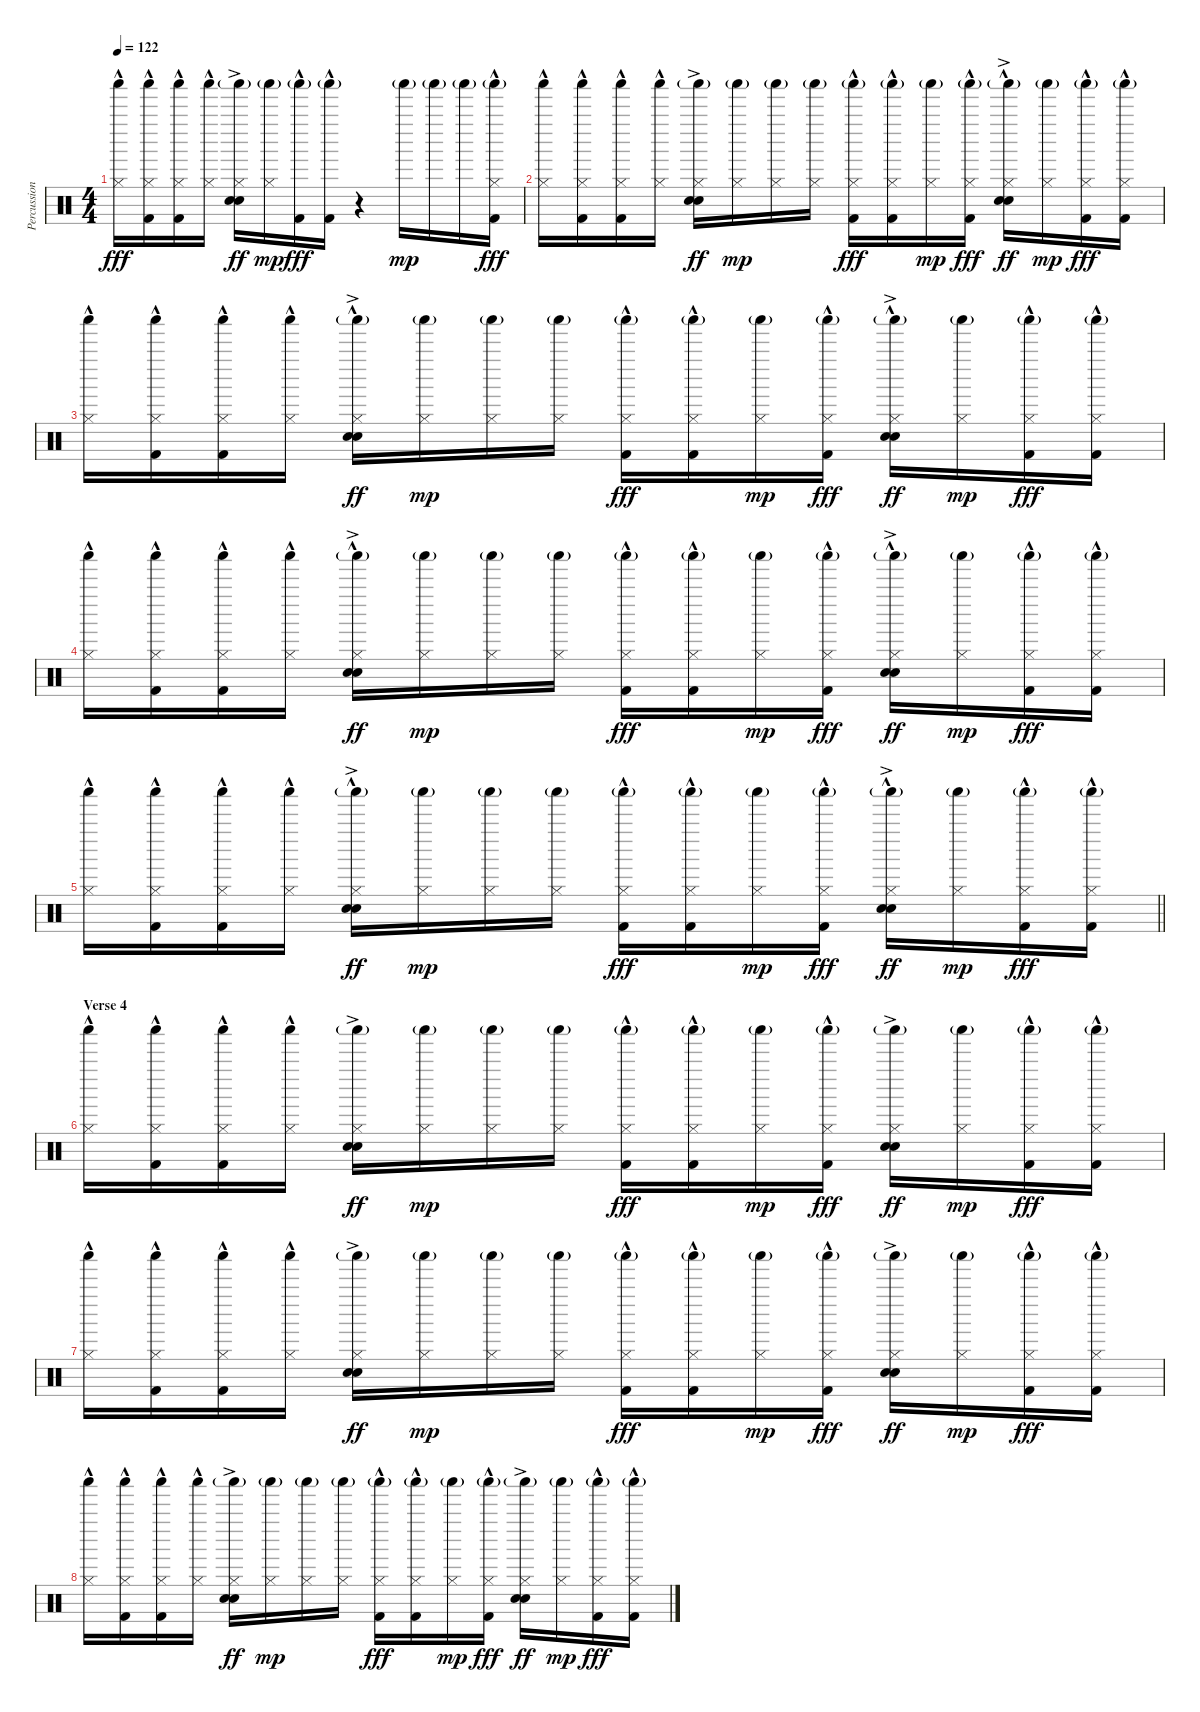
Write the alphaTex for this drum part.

\track ("Percussion" "Percussion") {instrument percussion}
\staff {score}
\articulation defaults
\ts (4 4)
\tempo 122
\clef neutral
\ks c
("Shaker (hit)" "Hi-Hat (closed)"{hac}).16{dy fff} ("Shaker (hit)" "Hi-Hat (closed)"{hac} "Kick (hit) 2"{hac}).16 ("Shaker (hit)" "Hi-Hat (closed)"{hac} "Kick (hit) 2"{hac}).16 ("Shaker (hit)" "Hi-Hat (closed)"{hac}).16 ("Shaker (hit)"{g} "Hi-Hat (closed)" "Hand Clap (hit)"{ac} "Snare (hit) 2"{ac}).16{dy ff} ("Shaker (hit)"{g} "Hi-Hat (closed)").16{dy mp} ("Shaker (hit)"{g} "Kick (hit) 2"{hac}).16{dy fff} ("Shaker (hit)"{g} "Kick (hit) 2"{hac}).16 r.4 "Shaker (hit)"{g}.16{dy mp} "Shaker (hit)"{g}.16 "Shaker (hit)"{g}.16 ("Shaker (hit)"{g} "Hi-Hat (closed)" "Kick (hit) 2"{hac}).16{dy fff} |
("Shaker (hit)" "Hi-Hat (closed)"{hac}).16 ("Shaker (hit)" "Hi-Hat (closed)"{hac} "Kick (hit) 2"{hac}).16 ("Shaker (hit)" "Hi-Hat (closed)"{hac} "Kick (hit) 2"{hac}).16 ("Shaker (hit)" "Hi-Hat (closed)"{hac}).16 ("Shaker (hit)"{g} "Hi-Hat (closed)" "Hand Clap (hit)"{ac} "Snare (hit) 2"{ac}).16{dy ff} ("Shaker (hit)"{g} "Hi-Hat (closed)").16{dy mp} ("Shaker (hit)"{g} "Hi-Hat (closed)").16 ("Shaker (hit)"{g} "Hi-Hat (closed)").16 ("Shaker (hit)"{g} "Hi-Hat (closed)" "Kick (hit) 2"{hac}).16{dy fff} ("Shaker (hit)"{g} "Hi-Hat (closed)" "Kick (hit) 2"{hac}).16 ("Shaker (hit)"{g} "Hi-Hat (closed)").16{dy mp} ("Shaker (hit)"{g} "Hi-Hat (closed)" "Kick (hit) 2"{hac}).16{dy fff} ("Shaker (hit)"{g} "Hi-Hat (closed)" "Hand Clap (hit)"{hac} "Snare (hit) 2"{ac}).16{dy ff} ("Shaker (hit)"{g} "Hi-Hat (closed)").16{dy mp} ("Shaker (hit)"{g} "Hi-Hat (closed)" "Kick (hit) 2"{hac}).16{dy fff} ("Shaker (hit)"{g} "Hi-Hat (closed)" "Kick (hit) 2"{hac}).16 |
("Shaker (hit)" "Hi-Hat (closed)"{hac}).16 ("Shaker (hit)" "Hi-Hat (closed)"{hac} "Kick (hit) 2"{hac}).16 ("Shaker (hit)" "Hi-Hat (closed)"{hac} "Kick (hit) 2"{hac}).16 ("Shaker (hit)" "Hi-Hat (closed)"{hac}).16 ("Shaker (hit)"{g} "Hi-Hat (closed)" "Hand Clap (hit)"{hac} "Snare (hit) 2"{ac}).16{dy ff} ("Shaker (hit)"{g} "Hi-Hat (closed)").16{dy mp} ("Shaker (hit)"{g} "Hi-Hat (closed)").16 ("Shaker (hit)"{g} "Hi-Hat (closed)").16 ("Shaker (hit)"{g} "Hi-Hat (closed)" "Kick (hit) 2"{hac}).16{dy fff} ("Shaker (hit)"{g} "Hi-Hat (closed)" "Kick (hit) 2"{hac}).16 ("Shaker (hit)"{g} "Hi-Hat (closed)").16{dy mp} ("Shaker (hit)"{g} "Hi-Hat (closed)" "Kick (hit) 2"{hac}).16{dy fff} ("Shaker (hit)"{g} "Hi-Hat (closed)" "Hand Clap (hit)"{hac} "Snare (hit) 2"{ac}).16{dy ff} ("Shaker (hit)"{g} "Hi-Hat (closed)").16{dy mp} ("Shaker (hit)"{g} "Hi-Hat (closed)" "Kick (hit) 2"{hac}).16{dy fff} ("Shaker (hit)"{g} "Hi-Hat (closed)" "Kick (hit) 2"{hac}).16 |
("Shaker (hit)" "Hi-Hat (closed)"{hac}).16 ("Shaker (hit)" "Hi-Hat (closed)"{hac} "Kick (hit) 2"{hac}).16 ("Shaker (hit)" "Hi-Hat (closed)"{hac} "Kick (hit) 2"{hac}).16 ("Shaker (hit)" "Hi-Hat (closed)"{hac}).16 ("Shaker (hit)"{g} "Hi-Hat (closed)" "Hand Clap (hit)"{hac} "Snare (hit) 2"{ac}).16{dy ff} ("Shaker (hit)"{g} "Hi-Hat (closed)").16{dy mp} ("Shaker (hit)"{g} "Hi-Hat (closed)").16 ("Shaker (hit)"{g} "Hi-Hat (closed)").16 ("Shaker (hit)"{g} "Hi-Hat (closed)" "Kick (hit) 2"{hac}).16{dy fff} ("Shaker (hit)"{g} "Hi-Hat (closed)" "Kick (hit) 2"{hac}).16 ("Shaker (hit)"{g} "Hi-Hat (closed)").16{dy mp} ("Shaker (hit)"{g} "Hi-Hat (closed)" "Kick (hit) 2"{hac}).16{dy fff} ("Shaker (hit)"{g} "Hi-Hat (closed)" "Hand Clap (hit)"{hac} "Snare (hit) 2"{ac}).16{dy ff} ("Shaker (hit)"{g} "Hi-Hat (closed)").16{dy mp} ("Shaker (hit)"{g} "Hi-Hat (closed)" "Kick (hit) 2"{hac}).16{dy fff} ("Shaker (hit)"{g} "Hi-Hat (closed)" "Kick (hit) 2"{hac}).16 |
\barLineRight lightlight
("Shaker (hit)" "Hi-Hat (closed)"{hac}).16 ("Shaker (hit)" "Hi-Hat (closed)"{hac} "Kick (hit) 2"{hac}).16 ("Shaker (hit)" "Hi-Hat (closed)"{hac} "Kick (hit) 2"{hac}).16 ("Shaker (hit)" "Hi-Hat (closed)"{hac}).16 ("Shaker (hit)"{g} "Hi-Hat (closed)" "Hand Clap (hit)"{hac} "Snare (hit) 2"{ac}).16{dy ff} ("Shaker (hit)"{g} "Hi-Hat (closed)").16{dy mp} ("Shaker (hit)"{g} "Hi-Hat (closed)").16 ("Shaker (hit)"{g} "Hi-Hat (closed)").16 ("Shaker (hit)"{g} "Hi-Hat (closed)" "Kick (hit) 2"{hac}).16{dy fff} ("Shaker (hit)"{g} "Hi-Hat (closed)" "Kick (hit) 2"{hac}).16 ("Shaker (hit)"{g} "Hi-Hat (closed)").16{dy mp} ("Shaker (hit)"{g} "Hi-Hat (closed)" "Kick (hit) 2"{hac}).16{dy fff} ("Shaker (hit)"{g} "Hi-Hat (closed)" "Hand Clap (hit)"{hac} "Snare (hit) 2"{ac}).16{dy ff} ("Shaker (hit)"{g} "Hi-Hat (closed)").16{dy mp} ("Shaker (hit)"{g} "Hi-Hat (closed)" "Kick (hit) 2"{hac}).16{dy fff} ("Shaker (hit)"{g} "Hi-Hat (closed)" "Kick (hit) 2"{hac}).16 |
\section ("" "Verse 4")
("Shaker (hit)" "Hi-Hat (closed)"{hac}).16 ("Shaker (hit)" "Hi-Hat (closed)"{hac} "Kick (hit) 2"{hac}).16 ("Shaker (hit)" "Hi-Hat (closed)"{hac} "Kick (hit) 2"{hac}).16 ("Shaker (hit)" "Hi-Hat (closed)"{hac}).16 ("Shaker (hit)"{g} "Hi-Hat (closed)" "Hand Clap (hit)" "Snare (hit) 2"{ac}).16{dy ff} ("Shaker (hit)"{g} "Hi-Hat (closed)").16{dy mp} ("Shaker (hit)"{g} "Hi-Hat (closed)").16 ("Shaker (hit)"{g} "Hi-Hat (closed)").16 ("Shaker (hit)"{g} "Hi-Hat (closed)" "Kick (hit) 2"{hac}).16{dy fff} ("Shaker (hit)"{g} "Hi-Hat (closed)" "Kick (hit) 2"{hac}).16 ("Shaker (hit)"{g} "Hi-Hat (closed)").16{dy mp} ("Shaker (hit)"{g} "Hi-Hat (closed)" "Kick (hit) 2"{hac}).16{dy fff} ("Shaker (hit)"{g} "Hi-Hat (closed)" "Hand Clap (hit)"{ac} "Snare (hit) 2"{ac}).16{dy ff} ("Shaker (hit)"{g} "Hi-Hat (closed)").16{dy mp} ("Shaker (hit)"{g} "Hi-Hat (closed)" "Kick (hit) 2"{hac}).16{dy fff} ("Shaker (hit)"{g} "Hi-Hat (closed)" "Kick (hit) 2"{hac}).16 |
("Shaker (hit)" "Hi-Hat (closed)"{hac}).16 ("Shaker (hit)" "Hi-Hat (closed)"{hac} "Kick (hit) 2"{hac}).16 ("Shaker (hit)" "Hi-Hat (closed)"{hac} "Kick (hit) 2"{hac}).16 ("Shaker (hit)" "Hi-Hat (closed)"{hac}).16 ("Shaker (hit)"{g} "Hi-Hat (closed)" "Hand Clap (hit)" "Snare (hit) 2"{ac}).16{dy ff} ("Shaker (hit)"{g} "Hi-Hat (closed)").16{dy mp} ("Shaker (hit)"{g} "Hi-Hat (closed)").16 ("Shaker (hit)"{g} "Hi-Hat (closed)").16 ("Shaker (hit)"{g} "Hi-Hat (closed)" "Kick (hit) 2"{hac}).16{dy fff} ("Shaker (hit)"{g} "Hi-Hat (closed)" "Kick (hit) 2"{hac}).16 ("Shaker (hit)"{g} "Hi-Hat (closed)").16{dy mp} ("Shaker (hit)"{g} "Hi-Hat (closed)" "Kick (hit) 2"{hac}).16{dy fff} ("Shaker (hit)"{g} "Hi-Hat (closed)" "Hand Clap (hit)"{ac} "Snare (hit) 2"{ac}).16{dy ff} ("Shaker (hit)"{g} "Hi-Hat (closed)").16{dy mp} ("Shaker (hit)"{g} "Hi-Hat (closed)" "Kick (hit) 2"{hac}).16{dy fff} ("Shaker (hit)"{g} "Hi-Hat (closed)" "Kick (hit) 2"{hac}).16 |
("Shaker (hit)" "Hi-Hat (closed)"{hac}).16 ("Shaker (hit)" "Hi-Hat (closed)"{hac} "Kick (hit) 2"{hac}).16 ("Shaker (hit)" "Hi-Hat (closed)"{hac} "Kick (hit) 2"{hac}).16 ("Shaker (hit)" "Hi-Hat (closed)"{hac}).16 ("Shaker (hit)"{g} "Hi-Hat (closed)" "Hand Clap (hit)" "Snare (hit) 2"{ac}).16{dy ff} ("Shaker (hit)"{g} "Hi-Hat (closed)").16{dy mp} ("Shaker (hit)"{g} "Hi-Hat (closed)").16 ("Shaker (hit)"{g} "Hi-Hat (closed)").16 ("Shaker (hit)"{g} "Hi-Hat (closed)" "Kick (hit) 2"{hac}).16{dy fff} ("Shaker (hit)"{g} "Hi-Hat (closed)" "Kick (hit) 2"{hac}).16 ("Shaker (hit)"{g} "Hi-Hat (closed)").16{dy mp} ("Shaker (hit)"{g} "Hi-Hat (closed)" "Kick (hit) 2"{hac}).16{dy fff} ("Shaker (hit)"{g} "Hi-Hat (closed)" "Hand Clap (hit)"{ac} "Snare (hit) 2"{ac}).16{dy ff} ("Shaker (hit)"{g} "Hi-Hat (closed)").16{dy mp} ("Shaker (hit)"{g} "Hi-Hat (closed)" "Kick (hit) 2"{hac}).16{dy fff} ("Shaker (hit)"{g} "Hi-Hat (closed)" "Kick (hit) 2"{hac}).16
